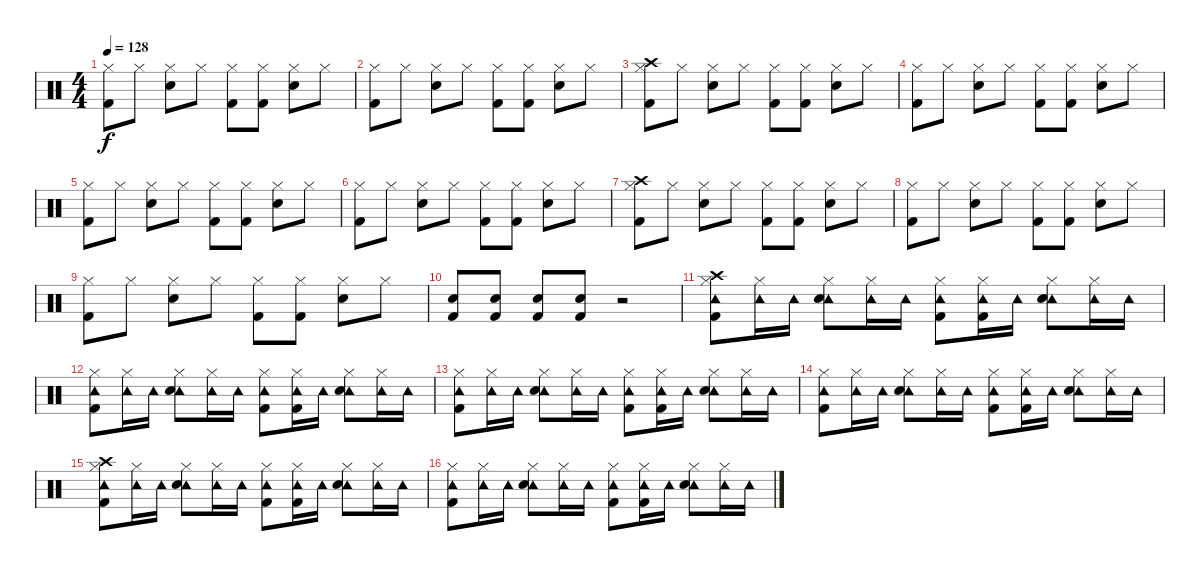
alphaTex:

\track "" {instrument percussion}
\staff {score}
\articulation defaults
\ts (4 4)
\tempo 128
\clef neutral
\ks c
("Hi-Hat (closed)" "Kick (hit) 2").8{dy f} "Hi-Hat (closed)".8 ("Hi-Hat (closed)" "Snare (hit) 2").8 "Hi-Hat (closed)".8 ("Hi-Hat (closed)" "Kick (hit) 2").8 ("Hi-Hat (closed)" "Kick (hit) 2").8 ("Hi-Hat (closed)" "Snare (hit) 2").8 "Hi-Hat (closed)".8 |
("Hi-Hat (closed)" "Kick (hit) 2").8 "Hi-Hat (closed)".8 ("Hi-Hat (closed)" "Snare (hit) 2").8 "Hi-Hat (closed)".8 ("Hi-Hat (closed)" "Kick (hit) 2").8 ("Hi-Hat (closed)" "Kick (hit) 2").8 ("Hi-Hat (closed)" "Snare (hit) 2").8 "Hi-Hat (closed)".8 |
("Hi-Hat (closed)" "Crash high (hit)" "Kick (hit) 2").8 "Hi-Hat (closed)".8 ("Hi-Hat (closed)" "Snare (hit) 2").8 "Hi-Hat (closed)".8 ("Hi-Hat (closed)" "Kick (hit) 2").8 ("Hi-Hat (closed)" "Kick (hit) 2").8 ("Hi-Hat (closed)" "Snare (hit) 2").8 "Hi-Hat (closed)".8 |
("Hi-Hat (closed)" "Kick (hit) 2").8 "Hi-Hat (closed)".8 ("Hi-Hat (closed)" "Snare (hit) 2").8 "Hi-Hat (closed)".8 ("Hi-Hat (closed)" "Kick (hit) 2").8 ("Hi-Hat (closed)" "Kick (hit) 2").8 ("Hi-Hat (closed)" "Snare (hit) 2").8 "Hi-Hat (closed)".8 |
("Hi-Hat (closed)" "Kick (hit) 2").8 "Hi-Hat (closed)".8 ("Hi-Hat (closed)" "Snare (hit) 2").8 "Hi-Hat (closed)".8 ("Hi-Hat (closed)" "Kick (hit) 2").8 ("Hi-Hat (closed)" "Kick (hit) 2").8 ("Hi-Hat (closed)" "Snare (hit) 2").8 "Hi-Hat (closed)".8 |
("Hi-Hat (closed)" "Kick (hit) 2").8 "Hi-Hat (closed)".8 ("Hi-Hat (closed)" "Snare (hit) 2").8 "Hi-Hat (closed)".8 ("Hi-Hat (closed)" "Kick (hit) 2").8 ("Hi-Hat (closed)" "Kick (hit) 2").8 ("Hi-Hat (closed)" "Snare (hit) 2").8 "Hi-Hat (closed)".8 |
("Hi-Hat (closed)" "Crash high (hit)" "Kick (hit) 2").8 "Hi-Hat (closed)".8 ("Hi-Hat (closed)" "Snare (hit) 2").8 "Hi-Hat (closed)".8 ("Hi-Hat (closed)" "Kick (hit) 2").8 ("Hi-Hat (closed)" "Kick (hit) 2").8 ("Hi-Hat (closed)" "Snare (hit) 2").8 "Hi-Hat (closed)".8 |
("Hi-Hat (closed)" "Kick (hit) 2").8 "Hi-Hat (closed)".8 ("Hi-Hat (closed)" "Snare (hit) 2").8 "Hi-Hat (closed)".8 ("Hi-Hat (closed)" "Kick (hit) 2").8 ("Hi-Hat (closed)" "Kick (hit) 2").8 ("Hi-Hat (closed)" "Snare (hit) 2").8 "Hi-Hat (closed)".8 |
("Hi-Hat (closed)" "Kick (hit) 2").8 "Hi-Hat (closed)".8 ("Hi-Hat (closed)" "Snare (hit) 2").8 "Hi-Hat (closed)".8 ("Hi-Hat (closed)" "Kick (hit) 2").8 ("Hi-Hat (closed)" "Kick (hit) 2").8 ("Hi-Hat (closed)" "Snare (hit) 2").8 "Hi-Hat (closed)".8 |
("Snare (hit) 2" "Kick (hit) 2").8 ("Snare (hit) 2" "Kick (hit) 2").8 ("Snare (hit) 2" "Kick (hit) 2").8 ("Snare (hit) 2" "Kick (hit) 2").8 r.2 |
("Hi-Hat (closed)" "Tambourine (hit)" "Crash high (hit)" "Kick (hit) 2").8 ("Hi-Hat (closed)" "Tambourine (hit)").16 "Tambourine (hit)".16 ("Hi-Hat (closed)" "Tambourine (hit)" "Snare (hit) 2").8 ("Hi-Hat (closed)" "Tambourine (hit)").16 "Tambourine (hit)".16 ("Hi-Hat (closed)" "Tambourine (hit)" "Kick (hit) 2").8 ("Hi-Hat (closed)" "Tambourine (hit)" "Kick (hit) 2").16 "Tambourine (hit)".16 ("Hi-Hat (closed)" "Tambourine (hit)" "Snare (hit) 2").8 ("Hi-Hat (closed)" "Tambourine (hit)").16 "Tambourine (hit)".16 |
("Hi-Hat (closed)" "Tambourine (hit)" "Kick (hit) 2").8 ("Hi-Hat (closed)" "Tambourine (hit)").16 "Tambourine (hit)".16 ("Hi-Hat (closed)" "Tambourine (hit)" "Snare (hit) 2").8 ("Hi-Hat (closed)" "Tambourine (hit)").16 "Tambourine (hit)".16 ("Hi-Hat (closed)" "Tambourine (hit)" "Kick (hit) 2").8 ("Hi-Hat (closed)" "Tambourine (hit)" "Kick (hit) 2").16 "Tambourine (hit)".16 ("Hi-Hat (closed)" "Tambourine (hit)" "Snare (hit) 2").8 ("Hi-Hat (closed)" "Tambourine (hit)").16 "Tambourine (hit)".16 |
("Hi-Hat (closed)" "Tambourine (hit)" "Kick (hit) 2").8 ("Hi-Hat (closed)" "Tambourine (hit)").16 "Tambourine (hit)".16 ("Hi-Hat (closed)" "Tambourine (hit)" "Snare (hit) 2").8 ("Hi-Hat (closed)" "Tambourine (hit)").16 "Tambourine (hit)".16 ("Hi-Hat (closed)" "Tambourine (hit)" "Kick (hit) 2").8 ("Hi-Hat (closed)" "Tambourine (hit)" "Kick (hit) 2").16 "Tambourine (hit)".16 ("Hi-Hat (closed)" "Tambourine (hit)" "Snare (hit) 2").8 ("Hi-Hat (closed)" "Tambourine (hit)").16 "Tambourine (hit)".16 |
("Hi-Hat (closed)" "Tambourine (hit)" "Kick (hit) 2").8 ("Hi-Hat (closed)" "Tambourine (hit)").16 "Tambourine (hit)".16 ("Hi-Hat (closed)" "Tambourine (hit)" "Snare (hit) 2").8 ("Hi-Hat (closed)" "Tambourine (hit)").16 "Tambourine (hit)".16 ("Hi-Hat (closed)" "Tambourine (hit)" "Kick (hit) 2").8 ("Hi-Hat (closed)" "Tambourine (hit)" "Kick (hit) 2").16 "Tambourine (hit)".16 ("Hi-Hat (closed)" "Tambourine (hit)" "Snare (hit) 2").8 ("Hi-Hat (closed)" "Tambourine (hit)").16 "Tambourine (hit)".16 |
("Hi-Hat (closed)" "Tambourine (hit)" "Crash high (hit)" "Kick (hit) 2").8 ("Hi-Hat (closed)" "Tambourine (hit)").16 "Tambourine (hit)".16 ("Hi-Hat (closed)" "Tambourine (hit)" "Snare (hit) 2").8 ("Hi-Hat (closed)" "Tambourine (hit)").16 "Tambourine (hit)".16 ("Hi-Hat (closed)" "Tambourine (hit)" "Kick (hit) 2").8 ("Hi-Hat (closed)" "Tambourine (hit)" "Kick (hit) 2").16 "Tambourine (hit)".16 ("Hi-Hat (closed)" "Tambourine (hit)" "Snare (hit) 2").8 ("Hi-Hat (closed)" "Tambourine (hit)").16 "Tambourine (hit)".16 |
("Hi-Hat (closed)" "Tambourine (hit)" "Kick (hit) 2").8 ("Hi-Hat (closed)" "Tambourine (hit)").16 "Tambourine (hit)".16 ("Hi-Hat (closed)" "Tambourine (hit)" "Snare (hit) 2").8 ("Hi-Hat (closed)" "Tambourine (hit)").16 "Tambourine (hit)".16 ("Hi-Hat (closed)" "Tambourine (hit)" "Kick (hit) 2").8 ("Hi-Hat (closed)" "Tambourine (hit)" "Kick (hit) 2").16 "Tambourine (hit)".16 ("Hi-Hat (closed)" "Tambourine (hit)" "Snare (hit) 2").8 ("Hi-Hat (closed)" "Tambourine (hit)").16 "Tambourine (hit)".16
